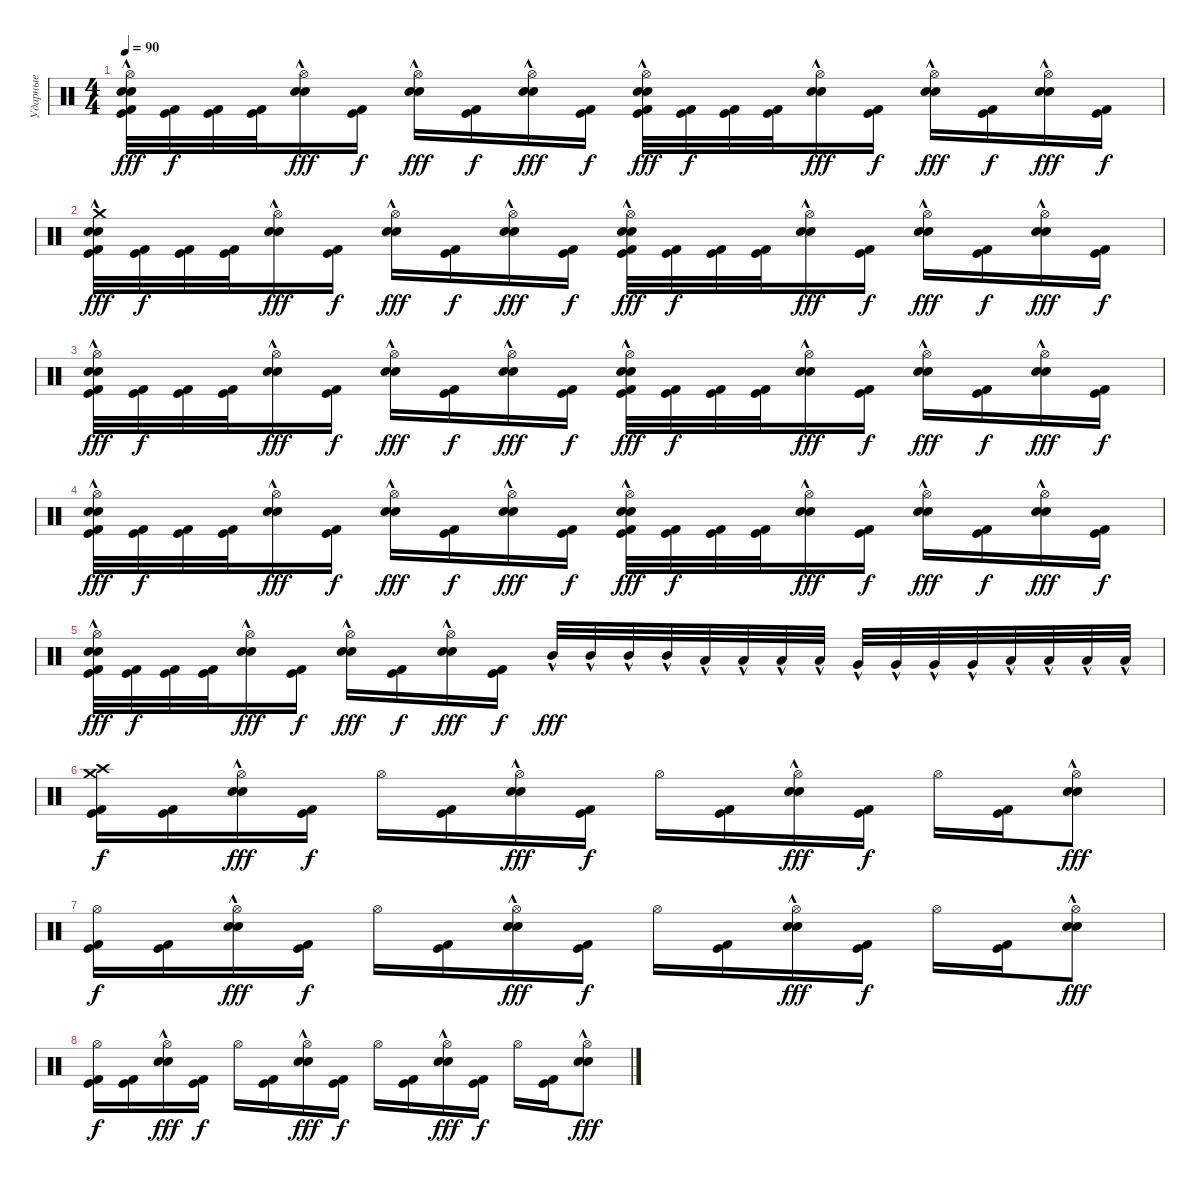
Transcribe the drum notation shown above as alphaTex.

\track ("Ударные" "Ударные") {instrument percussion}
\staff {score}
\articulation defaults
\ts (4 4)
\tempo 90
\clef neutral
\ks c
("Hi-Hat (open)" "Kick (hit)" "Kick (hit) 2" "Snare (hit) 2"{hac} "Electric Snare (hit)"{hac}).32{dy fff} ("Kick (hit)" "Kick (hit) 2").32{dy f} ("Kick (hit)" "Kick (hit) 2").32 ("Kick (hit)" "Kick (hit) 2").32 ("Hi-Hat (open)" "Snare (hit) 2"{hac} "Electric Snare (hit)"{hac}).16{dy fff} ("Kick (hit)" "Kick (hit) 2").16{dy f} ("Hi-Hat (open)" "Snare (hit) 2"{hac} "Electric Snare (hit)"{hac}).16{dy fff} ("Kick (hit)" "Kick (hit) 2").16{dy f} ("Hi-Hat (open)" "Snare (hit) 2"{hac} "Electric Snare (hit)"{hac}).16{dy fff} ("Kick (hit)" "Kick (hit) 2").16{dy f} ("Hi-Hat (open)" "Kick (hit)" "Kick (hit) 2" "Snare (hit) 2"{hac} "Electric Snare (hit)"{hac}).32{dy fff} ("Kick (hit)" "Kick (hit) 2").32{dy f} ("Kick (hit)" "Kick (hit) 2").32 ("Kick (hit)" "Kick (hit) 2").32 ("Hi-Hat (open)" "Snare (hit) 2"{hac} "Electric Snare (hit)"{hac}).16{dy fff} ("Kick (hit)" "Kick (hit) 2").16{dy f} ("Hi-Hat (open)" "Snare (hit) 2"{hac} "Electric Snare (hit)"{hac}).16{dy fff} ("Kick (hit)" "Kick (hit) 2").16{dy f} ("Hi-Hat (open)" "Snare (hit) 2"{hac} "Electric Snare (hit)"{hac}).16{dy fff} ("Kick (hit)" "Kick (hit) 2").16{dy f} |
("Crash medium (hit)" "Kick (hit)" "Kick (hit) 2" "Snare (hit) 2"{hac} "Electric Snare (hit)"{hac}).32{dy fff} ("Kick (hit)" "Kick (hit) 2").32{dy f} ("Kick (hit)" "Kick (hit) 2").32 ("Kick (hit)" "Kick (hit) 2").32 ("Hi-Hat (open)" "Snare (hit) 2"{hac} "Electric Snare (hit)"{hac}).16{dy fff} ("Kick (hit)" "Kick (hit) 2").16{dy f} ("Hi-Hat (open)" "Snare (hit) 2"{hac} "Electric Snare (hit)"{hac}).16{dy fff} ("Kick (hit)" "Kick (hit) 2").16{dy f} ("Hi-Hat (open)" "Snare (hit) 2"{hac} "Electric Snare (hit)"{hac}).16{dy fff} ("Kick (hit)" "Kick (hit) 2").16{dy f} ("Hi-Hat (open)" "Kick (hit)" "Kick (hit) 2" "Snare (hit) 2"{hac} "Electric Snare (hit)"{hac}).32{dy fff} ("Kick (hit)" "Kick (hit) 2").32{dy f} ("Kick (hit)" "Kick (hit) 2").32 ("Kick (hit)" "Kick (hit) 2").32 ("Hi-Hat (open)" "Snare (hit) 2"{hac} "Electric Snare (hit)"{hac}).16{dy fff} ("Kick (hit)" "Kick (hit) 2").16{dy f} ("Hi-Hat (open)" "Snare (hit) 2"{hac} "Electric Snare (hit)"{hac}).16{dy fff} ("Kick (hit)" "Kick (hit) 2").16{dy f} ("Hi-Hat (open)" "Snare (hit) 2"{hac} "Electric Snare (hit)"{hac}).16{dy fff} ("Kick (hit)" "Kick (hit) 2").16{dy f} |
("Hi-Hat (open)" "Kick (hit)" "Kick (hit) 2" "Snare (hit) 2"{hac} "Electric Snare (hit)"{hac}).32{dy fff} ("Kick (hit)" "Kick (hit) 2").32{dy f} ("Kick (hit)" "Kick (hit) 2").32 ("Kick (hit)" "Kick (hit) 2").32 ("Hi-Hat (open)" "Snare (hit) 2"{hac} "Electric Snare (hit)"{hac}).16{dy fff} ("Kick (hit)" "Kick (hit) 2").16{dy f} ("Hi-Hat (open)" "Snare (hit) 2"{hac} "Electric Snare (hit)"{hac}).16{dy fff} ("Kick (hit)" "Kick (hit) 2").16{dy f} ("Hi-Hat (open)" "Snare (hit) 2"{hac} "Electric Snare (hit)"{hac}).16{dy fff} ("Kick (hit)" "Kick (hit) 2").16{dy f} ("Hi-Hat (open)" "Kick (hit)" "Kick (hit) 2" "Snare (hit) 2"{hac} "Electric Snare (hit)"{hac}).32{dy fff} ("Kick (hit)" "Kick (hit) 2").32{dy f} ("Kick (hit)" "Kick (hit) 2").32 ("Kick (hit)" "Kick (hit) 2").32 ("Hi-Hat (open)" "Snare (hit) 2"{hac} "Electric Snare (hit)"{hac}).16{dy fff} ("Kick (hit)" "Kick (hit) 2").16{dy f} ("Hi-Hat (open)" "Snare (hit) 2"{hac} "Electric Snare (hit)"{hac}).16{dy fff} ("Kick (hit)" "Kick (hit) 2").16{dy f} ("Hi-Hat (open)" "Snare (hit) 2"{hac} "Electric Snare (hit)"{hac}).16{dy fff} ("Kick (hit)" "Kick (hit) 2").16{dy f} |
("Hi-Hat (open)" "Kick (hit)" "Kick (hit) 2" "Snare (hit) 2"{hac} "Electric Snare (hit)"{hac}).32{dy fff} ("Kick (hit)" "Kick (hit) 2").32{dy f} ("Kick (hit)" "Kick (hit) 2").32 ("Kick (hit)" "Kick (hit) 2").32 ("Hi-Hat (open)" "Snare (hit) 2"{hac} "Electric Snare (hit)"{hac}).16{dy fff} ("Kick (hit)" "Kick (hit) 2").16{dy f} ("Hi-Hat (open)" "Snare (hit) 2"{hac} "Electric Snare (hit)"{hac}).16{dy fff} ("Kick (hit)" "Kick (hit) 2").16{dy f} ("Hi-Hat (open)" "Snare (hit) 2"{hac} "Electric Snare (hit)"{hac}).16{dy fff} ("Kick (hit)" "Kick (hit) 2").16{dy f} ("Hi-Hat (open)" "Kick (hit)" "Kick (hit) 2" "Snare (hit) 2"{hac} "Electric Snare (hit)"{hac}).32{dy fff} ("Kick (hit)" "Kick (hit) 2").32{dy f} ("Kick (hit)" "Kick (hit) 2").32 ("Kick (hit)" "Kick (hit) 2").32 ("Hi-Hat (open)" "Snare (hit) 2"{hac} "Electric Snare (hit)"{hac}).16{dy fff} ("Kick (hit)" "Kick (hit) 2").16{dy f} ("Hi-Hat (open)" "Snare (hit) 2"{hac} "Electric Snare (hit)"{hac}).16{dy fff} ("Kick (hit)" "Kick (hit) 2").16{dy f} ("Hi-Hat (open)" "Snare (hit) 2"{hac} "Electric Snare (hit)"{hac}).16{dy fff} ("Kick (hit)" "Kick (hit) 2").16{dy f} |
("Hi-Hat (open)" "Kick (hit)" "Kick (hit) 2" "Snare (hit) 2"{hac} "Electric Snare (hit)"{hac}).32{dy fff} ("Kick (hit)" "Kick (hit) 2").32{dy f} ("Kick (hit)" "Kick (hit) 2").32 ("Kick (hit)" "Kick (hit) 2").32 ("Hi-Hat (open)" "Snare (hit) 2"{hac} "Electric Snare (hit)"{hac}).16{dy fff} ("Kick (hit)" "Kick (hit) 2").16{dy f} ("Hi-Hat (open)" "Snare (hit) 2"{hac} "Electric Snare (hit)"{hac}).16{dy fff} ("Kick (hit)" "Kick (hit) 2").16{dy f} ("Hi-Hat (open)" "Snare (hit) 2"{hac} "Electric Snare (hit)"{hac}).16{dy fff} ("Kick (hit)" "Kick (hit) 2").16{dy f} "Mid Tom (hit)"{hac}.32{dy fff} "Mid Tom (hit)"{hac}.32 "Mid Tom (hit)"{hac}.32 "Mid Tom (hit)"{hac}.32 "Low Tom (hit)"{hac}.32 "Low Tom (hit)"{hac}.32 "Low Tom (hit)"{hac}.32 "Low Tom (hit)"{hac}.32 "Very Low Tom (hit)"{hac}.32 "Very Low Tom (hit)"{hac}.32 "Very Low Tom (hit)"{hac}.32 "Very Low Tom (hit)"{hac}.32 "Low Floor Tom (hit)"{hac}.32 "Low Floor Tom (hit)"{hac}.32 "Low Floor Tom (hit)"{hac}.32 "Low Floor Tom (hit)"{hac}.32 |
("Crash high (hit)" "Kick (hit)" "Kick (hit) 2" "Crash medium (hit)").16{dy f} ("Kick (hit)" "Kick (hit) 2").16 ("Hi-Hat (open)" "Snare (hit) 2"{hac} "Electric Snare (hit)"{hac}).16{dy fff} ("Kick (hit)" "Kick (hit) 2").16{dy f} "Hi-Hat (open)".16 ("Kick (hit)" "Kick (hit) 2").16 ("Hi-Hat (open)" "Snare (hit) 2"{hac} "Electric Snare (hit)"{hac}).16{dy fff} ("Kick (hit)" "Kick (hit) 2").16{dy f} "Hi-Hat (open)".16 ("Kick (hit)" "Kick (hit) 2").16 ("Hi-Hat (open)" "Snare (hit) 2"{hac} "Electric Snare (hit)"{hac}).16{dy fff} ("Kick (hit)" "Kick (hit) 2").16{dy f} "Hi-Hat (open)".16 ("Kick (hit)" "Kick (hit) 2").16 ("Hi-Hat (open)" "Snare (hit) 2"{hac} "Electric Snare (hit)"{hac}).8{dy fff} |
("Hi-Hat (open)" "Kick (hit)" "Kick (hit) 2").16{dy f} ("Kick (hit)" "Kick (hit) 2").16 ("Hi-Hat (open)" "Snare (hit) 2"{hac} "Electric Snare (hit)"{hac}).16{dy fff} ("Kick (hit)" "Kick (hit) 2").16{dy f} "Hi-Hat (open)".16 ("Kick (hit)" "Kick (hit) 2").16 ("Hi-Hat (open)" "Snare (hit) 2"{hac} "Electric Snare (hit)"{hac}).16{dy fff} ("Kick (hit)" "Kick (hit) 2").16{dy f} "Hi-Hat (open)".16 ("Kick (hit)" "Kick (hit) 2").16 ("Hi-Hat (open)" "Snare (hit) 2"{hac} "Electric Snare (hit)"{hac}).16{dy fff} ("Kick (hit)" "Kick (hit) 2").16{dy f} "Hi-Hat (open)".16 ("Kick (hit)" "Kick (hit) 2").16 ("Hi-Hat (open)" "Snare (hit) 2"{hac} "Electric Snare (hit)"{hac}).8{dy fff} |
("Hi-Hat (open)" "Kick (hit)" "Kick (hit) 2").16{dy f} ("Kick (hit)" "Kick (hit) 2").16 ("Hi-Hat (open)" "Snare (hit) 2"{hac} "Electric Snare (hit)"{hac}).16{dy fff} ("Kick (hit)" "Kick (hit) 2").16{dy f} "Hi-Hat (open)".16 ("Kick (hit)" "Kick (hit) 2").16 ("Hi-Hat (open)" "Snare (hit) 2"{hac} "Electric Snare (hit)"{hac}).16{dy fff} ("Kick (hit)" "Kick (hit) 2").16{dy f} "Hi-Hat (open)".16 ("Kick (hit)" "Kick (hit) 2").16 ("Hi-Hat (open)" "Snare (hit) 2"{hac} "Electric Snare (hit)"{hac}).16{dy fff} ("Kick (hit)" "Kick (hit) 2").16{dy f} "Hi-Hat (open)".16 ("Kick (hit)" "Kick (hit) 2").16 ("Hi-Hat (open)" "Snare (hit) 2"{hac} "Electric Snare (hit)"{hac}).8{dy fff}
